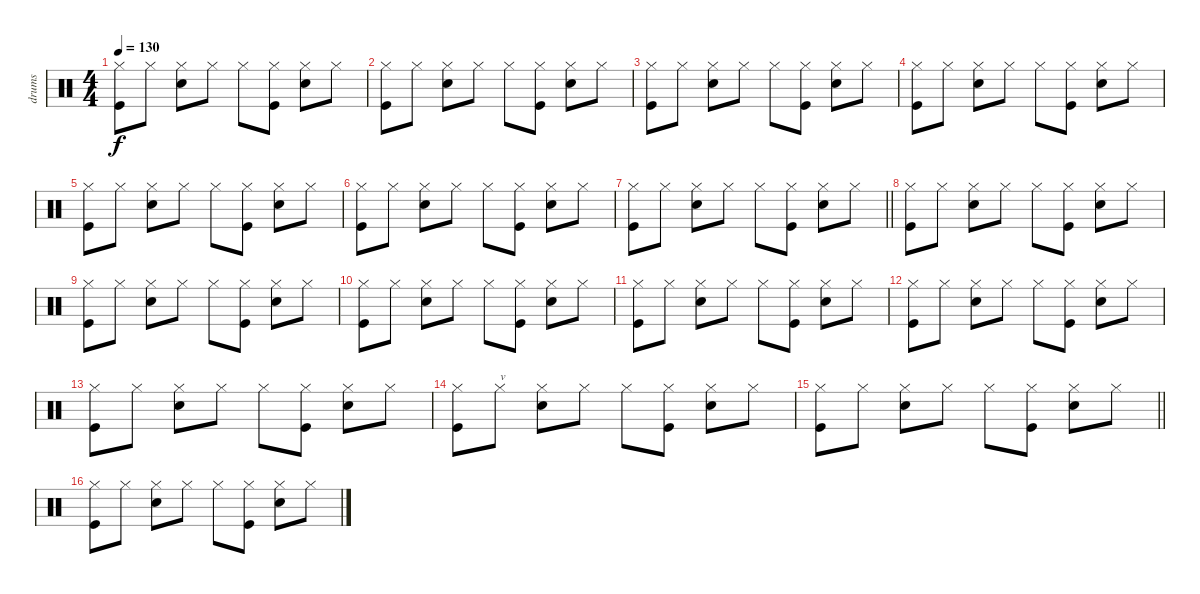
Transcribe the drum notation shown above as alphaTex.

\track ("drums" "drums") {instrument percussion}
\staff {score}
\articulation defaults
\ts (4 4)
\tempo 130
\clef neutral
\ks c
("Hi-Hat (closed)" "Kick (hit)").8{dy f} "Hi-Hat (closed)".8 ("Hi-Hat (closed)" "Snare (hit) 2").8 "Hi-Hat (closed)".8 "Hi-Hat (closed)".8 ("Hi-Hat (closed)" "Kick (hit)").8 ("Hi-Hat (closed)" "Snare (hit) 2").8 "Hi-Hat (closed)".8 |
("Hi-Hat (closed)" "Kick (hit)").8 "Hi-Hat (closed)".8 ("Hi-Hat (closed)" "Snare (hit) 2").8 "Hi-Hat (closed)".8 "Hi-Hat (closed)".8 ("Hi-Hat (closed)" "Kick (hit)").8 ("Hi-Hat (closed)" "Snare (hit) 2").8 "Hi-Hat (closed)".8 |
("Hi-Hat (closed)" "Kick (hit)").8 "Hi-Hat (closed)".8 ("Hi-Hat (closed)" "Snare (hit) 2").8 "Hi-Hat (closed)".8 "Hi-Hat (closed)".8 ("Hi-Hat (closed)" "Kick (hit)").8 ("Hi-Hat (closed)" "Snare (hit) 2").8 "Hi-Hat (closed)".8 |
("Hi-Hat (closed)" "Kick (hit)").8 "Hi-Hat (closed)".8 ("Hi-Hat (closed)" "Snare (hit) 2").8 "Hi-Hat (closed)".8 "Hi-Hat (closed)".8 ("Hi-Hat (closed)" "Kick (hit)").8 ("Hi-Hat (closed)" "Snare (hit) 2").8 "Hi-Hat (closed)".8 |
("Hi-Hat (closed)" "Kick (hit)").8 "Hi-Hat (closed)".8 ("Hi-Hat (closed)" "Snare (hit) 2").8 "Hi-Hat (closed)".8 "Hi-Hat (closed)".8 ("Hi-Hat (closed)" "Kick (hit)").8 ("Hi-Hat (closed)" "Snare (hit) 2").8 "Hi-Hat (closed)".8 |
("Hi-Hat (closed)" "Kick (hit)").8 "Hi-Hat (closed)".8 ("Hi-Hat (closed)" "Snare (hit) 2").8 "Hi-Hat (closed)".8 "Hi-Hat (closed)".8 ("Hi-Hat (closed)" "Kick (hit)").8 ("Hi-Hat (closed)" "Snare (hit) 2").8 "Hi-Hat (closed)".8 |
\barLineRight lightlight
("Hi-Hat (closed)" "Kick (hit)").8 "Hi-Hat (closed)".8 ("Hi-Hat (closed)" "Snare (hit) 2").8 "Hi-Hat (closed)".8 "Hi-Hat (closed)".8 ("Hi-Hat (closed)" "Kick (hit)").8 ("Hi-Hat (closed)" "Snare (hit) 2").8 "Hi-Hat (closed)".8 |
("Hi-Hat (closed)" "Kick (hit)").8 "Hi-Hat (closed)".8 ("Hi-Hat (closed)" "Snare (hit) 2").8 "Hi-Hat (closed)".8 "Hi-Hat (closed)".8 ("Hi-Hat (closed)" "Kick (hit)").8 ("Hi-Hat (closed)" "Snare (hit) 2").8 "Hi-Hat (closed)".8 |
("Hi-Hat (closed)" "Kick (hit)").8 "Hi-Hat (closed)".8 ("Hi-Hat (closed)" "Snare (hit) 2").8 "Hi-Hat (closed)".8 "Hi-Hat (closed)".8 ("Hi-Hat (closed)" "Kick (hit)").8 ("Hi-Hat (closed)" "Snare (hit) 2").8 "Hi-Hat (closed)".8 |
("Hi-Hat (closed)" "Kick (hit)").8 "Hi-Hat (closed)".8 ("Hi-Hat (closed)" "Snare (hit) 2").8 "Hi-Hat (closed)".8 "Hi-Hat (closed)".8 ("Hi-Hat (closed)" "Kick (hit)").8 ("Hi-Hat (closed)" "Snare (hit) 2").8 "Hi-Hat (closed)".8 |
("Hi-Hat (closed)" "Kick (hit)").8 "Hi-Hat (closed)".8 ("Hi-Hat (closed)" "Snare (hit) 2").8 "Hi-Hat (closed)".8 "Hi-Hat (closed)".8 ("Hi-Hat (closed)" "Kick (hit)").8 ("Hi-Hat (closed)" "Snare (hit) 2").8 "Hi-Hat (closed)".8 |
("Hi-Hat (closed)" "Kick (hit)").8 "Hi-Hat (closed)".8 ("Hi-Hat (closed)" "Snare (hit) 2").8 "Hi-Hat (closed)".8 "Hi-Hat (closed)".8 ("Hi-Hat (closed)" "Kick (hit)").8 ("Hi-Hat (closed)" "Snare (hit) 2").8 "Hi-Hat (closed)".8 |
("Hi-Hat (closed)" "Kick (hit)").8 "Hi-Hat (closed)".8 ("Hi-Hat (closed)" "Snare (hit) 2").8 "Hi-Hat (closed)".8 "Hi-Hat (closed)".8 ("Hi-Hat (closed)" "Kick (hit)").8 ("Hi-Hat (closed)" "Snare (hit) 2").8 "Hi-Hat (closed)".8 |
("Hi-Hat (closed)" "Kick (hit)").8 "Hi-Hat (closed)".8{txt "v"} ("Hi-Hat (closed)" "Snare (hit) 2").8 "Hi-Hat (closed)".8 "Hi-Hat (closed)".8 ("Hi-Hat (closed)" "Kick (hit)").8 ("Hi-Hat (closed)" "Snare (hit) 2").8 "Hi-Hat (closed)".8 |
\barLineRight lightlight
("Hi-Hat (closed)" "Kick (hit)").8 "Hi-Hat (closed)".8 ("Hi-Hat (closed)" "Snare (hit) 2").8 "Hi-Hat (closed)".8 "Hi-Hat (closed)".8 ("Hi-Hat (closed)" "Kick (hit)").8 ("Hi-Hat (closed)" "Snare (hit) 2").8 "Hi-Hat (closed)".8 |
("Hi-Hat (closed)" "Kick (hit)").8 "Hi-Hat (closed)".8 ("Hi-Hat (closed)" "Snare (hit) 2").8 "Hi-Hat (closed)".8 "Hi-Hat (closed)".8 ("Hi-Hat (closed)" "Kick (hit)").8 ("Hi-Hat (closed)" "Snare (hit) 2").8 "Hi-Hat (closed)".8
